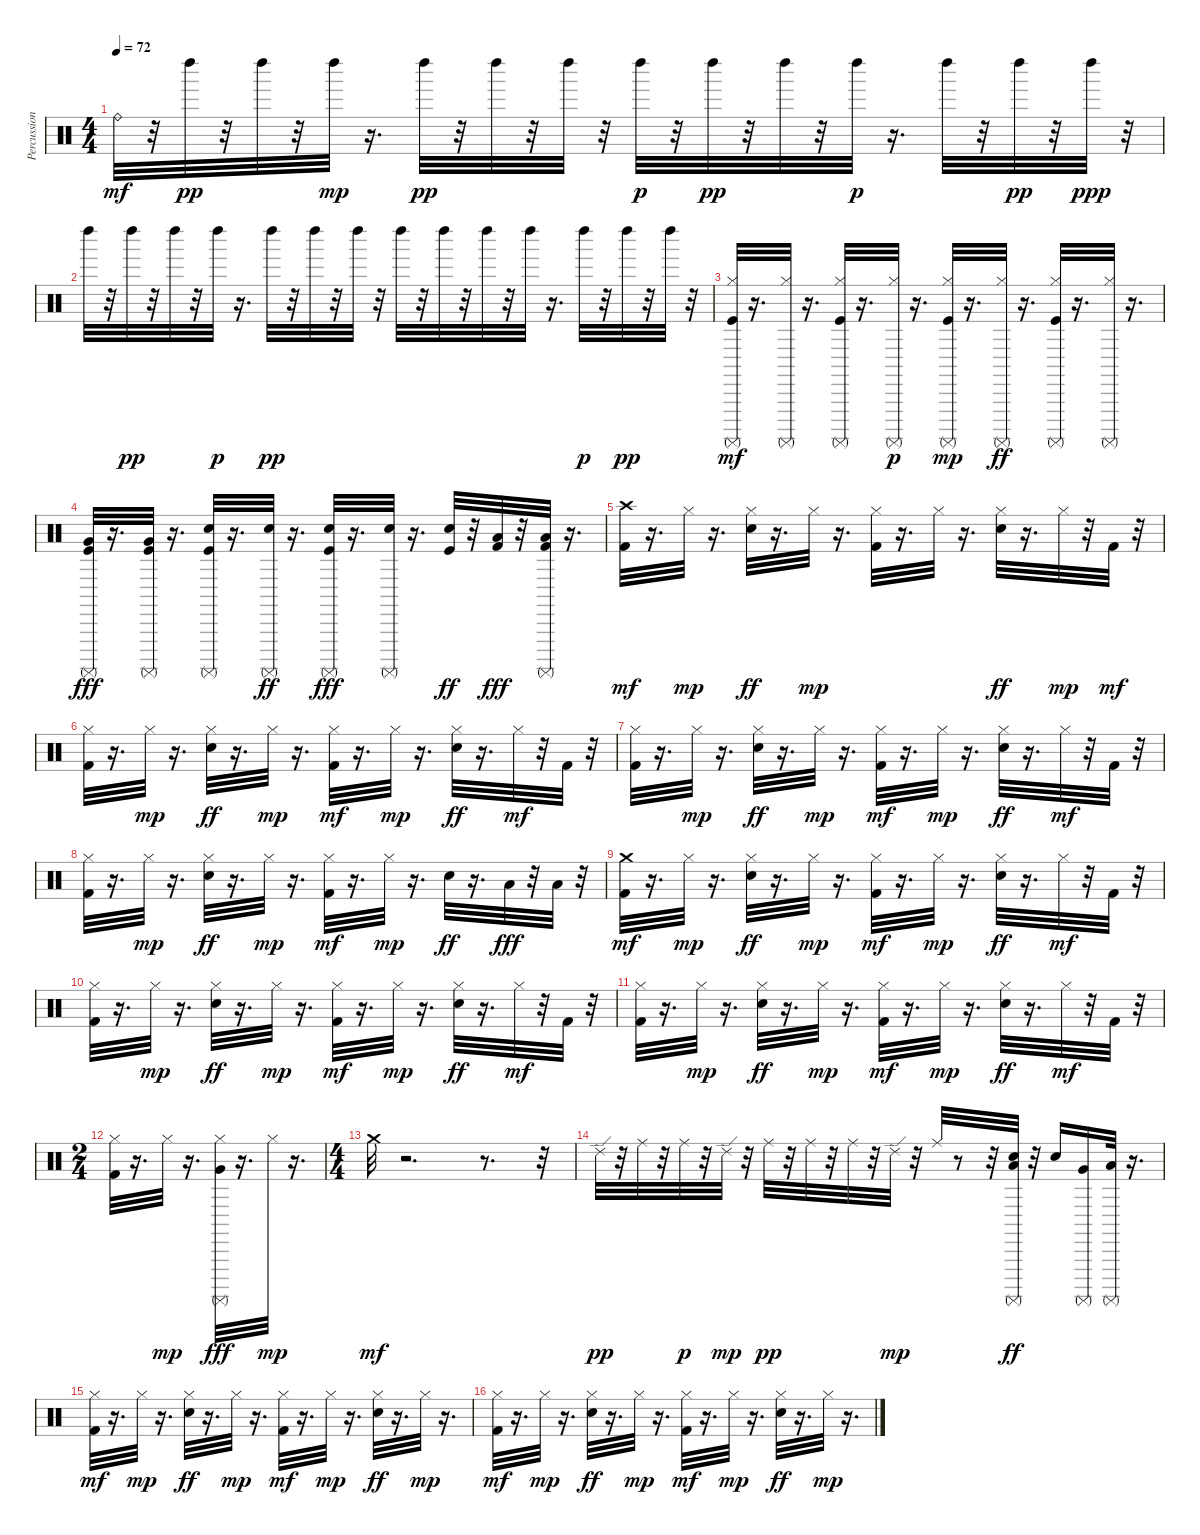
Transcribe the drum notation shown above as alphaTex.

\track ("Percussion" "Percussion") {instrument percussion}
\staff {score}
\articulation defaults
\ts (4 4)
\tempo 72
\clef neutral
\ks c "Ride (bell)".32{dy mf}
r.32 "Left Maraca (hit)".32{dy pp} r.32 "Left Maraca (hit)".32 r.32 "Left Maraca (hit)".32{dy mp} r.16{d} "Left Maraca (hit)".32{dy pp} r.32 "Left Maraca (hit)".32 r.32 "Left Maraca (hit)".32 r.32 "Left Maraca (hit)".32{dy p} r.32 "Left Maraca (hit)".32{dy pp} r.32 "Left Maraca (hit)".32 r.32 "Left Maraca (hit)".32{dy p} r.16{d} "Left Maraca (hit)".32 r.32 "Left Maraca (hit)".32{dy pp} r.32 "Left Maraca (hit)".32{dy ppp} r.32 |
"Left Maraca (hit)".32 r.32 "Left Maraca (hit)".32{dy pp} r.32 "Left Maraca (hit)".32 r.32 "Left Maraca (hit)".32{dy p} r.16{d} "Left Maraca (hit)".32{dy pp} r.32 "Left Maraca (hit)".32 r.32 "Left Maraca (hit)".32 r.32 "Left Maraca (hit)".32 r.32 "Left Maraca (hit)".32 r.32 "Left Maraca (hit)".32 r.32 "Left Maraca (hit)".32 r.16{d} "Left Maraca (hit)".32{dy p} r.32 "Left Maraca (hit)".32{dy pp} r.32 "Left Maraca (hit)".32 r.32 |
("Hi-Hat (closed)" "Kick (hit)" "Surdo (mute)").32{dy mf} r.16{d} ("Hi-Hat (closed)" "Surdo (mute)").32 r.16{d} ("Hi-Hat (closed)" "Kick (hit)" "Surdo (mute)").32 r.16{d} ("Hi-Hat (closed)" "Surdo (mute)").32{dy p} r.16{d} ("Hi-Hat (closed)" "Kick (hit)" "Surdo (mute)").32{dy mp} r.16{d} ("Hi-Hat (closed)" "Surdo (mute)").32{dy ff} r.16{d} ("Hi-Hat (closed)" "Kick (hit)" "Surdo (mute)").32 r.16{d} ("Hi-Hat (closed)" "Surdo (mute)").32 r.16{d} |
("Very Low Tom (hit)" "Kick (hit)" "Surdo (mute)").32{dy fff} r.16{d} ("Very Low Tom (hit)" "Kick (hit)" "Surdo (mute)").32 r.16{d} ("Snare (hit) 2" "Kick (hit)" "Surdo (mute)").32 r.16{d} ("Snare (hit) 2" "Surdo (mute)").32{dy ff} r.16{d} ("Snare (hit) 2" "Kick (hit)" "Surdo (mute)").32{dy fff} r.16{d} ("Snare (hit) 2" "Surdo (mute)").32 r.16{d} ("Snare (hit) 2" "Kick (hit)").32{dy ff} r.32 ("Low Tom (hit)" "Kick (hit) 2").32{dy fff} r.32 ("Low Floor Tom (hit)" "Kick (hit) 2" "Surdo (mute)").32 r.16{d} |
("Crash high (hit)" "Kick (hit) 2").32{dy mf} r.16{d} "Hi-Hat (closed)".32{dy mp} r.16{d} ("Hi-Hat (closed)" "Snare (hit) 2").32{dy ff} r.16{d} "Hi-Hat (closed)".32{dy mp} r.16{d} ("Hi-Hat (closed)" "Kick (hit) 2").32 r.16{d} "Hi-Hat (closed)".32 r.16{d} ("Snare (hit) 2" "Hi-Hat (closed)").32{dy ff} r.16{d} "Hi-Hat (closed)".32{dy mp} r.32 "Kick (hit) 2".32{dy mf} r.32 |
("Hi-Hat (closed)" "Kick (hit) 2").32 r.16{d} "Hi-Hat (closed)".32{dy mp} r.16{d} ("Snare (hit) 2" "Hi-Hat (closed)").32{dy ff} r.16{d} "Hi-Hat (closed)".32{dy mp} r.16{d} ("Kick (hit) 2" "Hi-Hat (closed)").32{dy mf} r.16{d} "Hi-Hat (closed)".32{dy mp} r.16{d} ("Snare (hit) 2" "Hi-Hat (closed)").32{dy ff} r.16{d} "Hi-Hat (closed)".32{dy mf} r.32 "Kick (hit) 2".32 r.32 |
("Hi-Hat (closed)" "Kick (hit) 2").32 r.16{d} "Hi-Hat (closed)".32{dy mp} r.16{d} ("Snare (hit) 2" "Hi-Hat (closed)").32{dy ff} r.16{d} "Hi-Hat (closed)".32{dy mp} r.16{d} ("Kick (hit) 2" "Hi-Hat (closed)").32{dy mf} r.16{d} "Hi-Hat (closed)".32{dy mp} r.16{d} ("Snare (hit) 2" "Hi-Hat (closed)").32{dy ff} r.16{d} "Hi-Hat (closed)".32{dy mf} r.32 "Kick (hit) 2".32 r.32 |
("Hi-Hat (closed)" "Kick (hit) 2").32 r.16{d} "Hi-Hat (closed)".32{dy mp} r.16{d} ("Snare (hit) 2" "Hi-Hat (closed)").32{dy ff} r.16{d} "Hi-Hat (closed)".32{dy mp} r.16{d} ("Kick (hit) 2" "Hi-Hat (closed)").32{dy mf} r.16{d} "Hi-Hat (closed)".32{dy mp} r.16{d} "Snare (hit) 2".32{dy ff} r.16{d} "Low Tom (hit)".32{dy fff} r.32 "Low Tom (hit)".32 r.32 |
("Crash medium (hit)" "Kick (hit) 2").32{dy mf} r.16{d} "Hi-Hat (closed)".32{dy mp} r.16{d} ("Snare (hit) 2" "Hi-Hat (closed)").32{dy ff} r.16{d} "Hi-Hat (closed)".32{dy mp} r.16{d} ("Kick (hit) 2" "Hi-Hat (closed)").32{dy mf} r.16{d} "Hi-Hat (closed)".32{dy mp} r.16{d} ("Snare (hit) 2" "Hi-Hat (closed)").32{dy ff} r.16{d} "Hi-Hat (closed)".32{dy mf} r.32 "Kick (hit) 2".32 r.32 |
("Hi-Hat (closed)" "Kick (hit) 2").32 r.16{d} "Hi-Hat (closed)".32{dy mp} r.16{d} ("Snare (hit) 2" "Hi-Hat (closed)").32{dy ff} r.16{d} "Hi-Hat (closed)".32{dy mp} r.16{d} ("Kick (hit) 2" "Hi-Hat (closed)").32{dy mf} r.16{d} "Hi-Hat (closed)".32{dy mp} r.16{d} ("Snare (hit) 2" "Hi-Hat (closed)").32{dy ff} r.16{d} "Hi-Hat (closed)".32{dy mf} r.32 "Kick (hit) 2".32 r.32 |
("Hi-Hat (closed)" "Kick (hit) 2").32 r.16{d} "Hi-Hat (closed)".32{dy mp} r.16{d} ("Snare (hit) 2" "Hi-Hat (closed)").32{dy ff} r.16{d} "Hi-Hat (closed)".32{dy mp} r.16{d} ("Kick (hit) 2" "Hi-Hat (closed)").32{dy mf} r.16{d} "Hi-Hat (closed)".32{dy mp} r.16{d} ("Snare (hit) 2" "Hi-Hat (closed)").32{dy ff} r.16{d} "Hi-Hat (closed)".32{dy mf} r.32 "Kick (hit) 2".32 r.32 |
\ts (2 4)
("Kick (hit) 2" "Hi-Hat (closed)").32 r.16{d} "Hi-Hat (closed)".32{dy mp} r.16{d} ("Hi-Hat (closed)" "Very Low Tom (hit)" "Surdo (mute)").32{dy fff} r.16{d} "Hi-Hat (closed)".32{dy mp} r.16{d} |
\ts (4 4)
"Crash medium (hit)".32{dy mf} r.2{d} r.8{d} r.32 |
"Ride (edge) 2".32{dy pp} r.32 "Ride (middle)".32 r.32 "Ride (middle)".32{dy p} r.32 "Ride (edge) 2".32{dy mp} r.32 "Ride (middle)".32{dy pp} r.32 "Ride (middle)".32 r.32 "Ride (middle)".32 r.32 "Ride (edge) 2".32{dy mp} r.32 "Ride (middle)".32 r.8 r.32 ("Snare (hit) 2" "Surdo (mute)" "Low Tom (hit)").32{dy ff} r.32 "Snare (hit) 2".16 ("Surdo (mute)" "Very Low Tom (hit)").16 ("Surdo (mute)" "Low Floor Tom (hit)").32 r.16{d} |
("Kick (hit) 2" "Hi-Hat (closed)").32{dy mf} r.16{d} "Hi-Hat (closed)".32{dy mp} r.16{d} ("Snare (hit) 2" "Hi-Hat (closed)").32{dy ff} r.16{d} "Hi-Hat (closed)".32{dy mp} r.16{d} ("Hi-Hat (closed)" "Kick (hit) 2").32{dy mf} r.16{d} "Hi-Hat (closed)".32{dy mp} r.16{d} ("Snare (hit) 2" "Hi-Hat (closed)").32{dy ff} r.16{d} "Hi-Hat (closed)".32{dy mp} r.16{d} |
("Hi-Hat (closed)" "Kick (hit) 2").32{dy mf} r.16{d} "Hi-Hat (closed)".32{dy mp} r.16{d} ("Hi-Hat (closed)" "Snare (hit) 2").32{dy ff} r.16{d} "Hi-Hat (closed)".32{dy mp} r.16{d} ("Hi-Hat (closed)" "Kick (hit) 2").32{dy mf} r.16{d} "Hi-Hat (closed)".32{dy mp} r.16{d} ("Hi-Hat (closed)" "Snare (hit) 2").32{dy ff} r.16{d} "Hi-Hat (closed)".32{dy mp} r.16{d}
